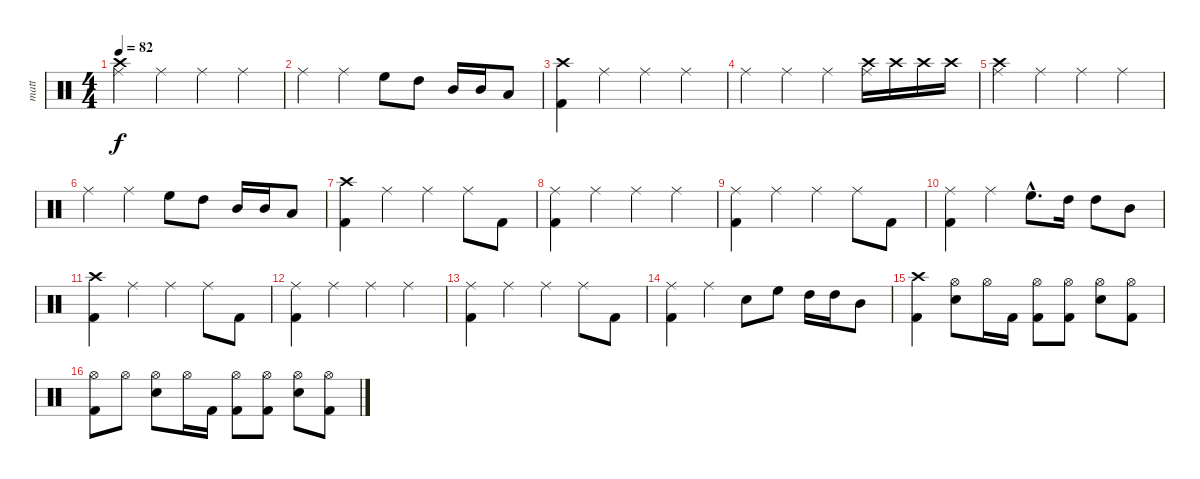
\track ("matt" "matt") {instrument percussion}
\staff {score}
\articulation defaults
\ts (4 4)
\tempo 82
\clef neutral
\ks c
("Crash high (hit)" "Ride (middle)").4{dy f} "Ride (middle)".4 "Ride (middle)".4 "Ride (middle)".4 |
"Ride (middle)".4 "Ride (middle)".4 "High Floor Tom (hit)".8 "High Tom (hit)".8 "Mid Tom (hit)".16 "Mid Tom (hit)".16 "Low Tom (hit)".8 |
("Crash high (hit)" "Kick (hit) 2").4 "Ride (middle)".4 "Ride (middle)".4 "Ride (middle)".4 |
"Ride (middle)".4 "Ride (middle)".4 "Ride (middle)".4 ("Crash high (hit)" "Ride (middle)").16 "Crash high (hit)".16 "Crash high (hit)".16 "Crash high (hit)".16 |
("Crash high (hit)" "Ride (middle)").4 "Ride (middle)".4 "Ride (middle)".4 "Ride (middle)".4 |
"Ride (middle)".4 "Ride (middle)".4 "High Floor Tom (hit)".8 "High Tom (hit)".8 "Mid Tom (hit)".16 "Mid Tom (hit)".16 "Low Tom (hit)".8 |
("Crash high (hit)" "Kick (hit) 2").4 "Ride (middle)".4 "Ride (middle)".4 "Ride (middle)".8 "Kick (hit) 2".8 |
("Ride (middle)" "Kick (hit) 2").4 "Ride (middle)".4 "Ride (middle)".4 "Ride (middle)".4 |
("Ride (middle)" "Kick (hit) 2").4 "Ride (middle)".4 "Ride (middle)".4 "Ride (middle)".8 "Kick (hit) 2".8 |
("Ride (middle)" "Kick (hit) 2").4 "Ride (middle)".4 "High Floor Tom (hit)"{hac}.8{d} "High Tom (hit)".16 "High Tom (hit)".8 "Mid Tom (hit)".8 |
("Crash high (hit)" "Kick (hit) 2").4 "Ride (middle)".4 "Ride (middle)".4 "Ride (middle)".8 "Kick (hit) 2".8 |
("Ride (middle)" "Kick (hit) 2").4 "Ride (middle)".4 "Ride (middle)".4 "Ride (middle)".4 |
("Ride (middle)" "Kick (hit) 2").4 "Ride (middle)".4 "Ride (middle)".4 "Ride (middle)".8 "Kick (hit) 2".8 |
("Ride (middle)" "Kick (hit) 2").4 "Ride (middle)".4 "Electric Snare (hit)".8 "High Floor Tom (hit)".8 "High Tom (hit)".16 "High Tom (hit)".16 "Mid Tom (hit)".8 |
("Crash high (hit)" "Kick (hit) 2").4 ("Hi-Hat (open)" "Electric Snare (hit)").8 "Hi-Hat (open)".16 "Kick (hit) 2".16 ("Hi-Hat (open)" "Kick (hit) 2").8 ("Hi-Hat (open)" "Kick (hit) 2").8 ("Hi-Hat (open)" "Electric Snare (hit)").8 ("Hi-Hat (open)" "Kick (hit) 2").8 |
("Hi-Hat (open)" "Kick (hit) 2").8 "Hi-Hat (open)".8 ("Hi-Hat (open)" "Electric Snare (hit)").8 "Hi-Hat (open)".16 "Kick (hit) 2".16 ("Hi-Hat (open)" "Kick (hit) 2").8 ("Hi-Hat (open)" "Kick (hit) 2").8 ("Hi-Hat (open)" "Electric Snare (hit)").8 ("Hi-Hat (open)" "Kick (hit) 2").8
